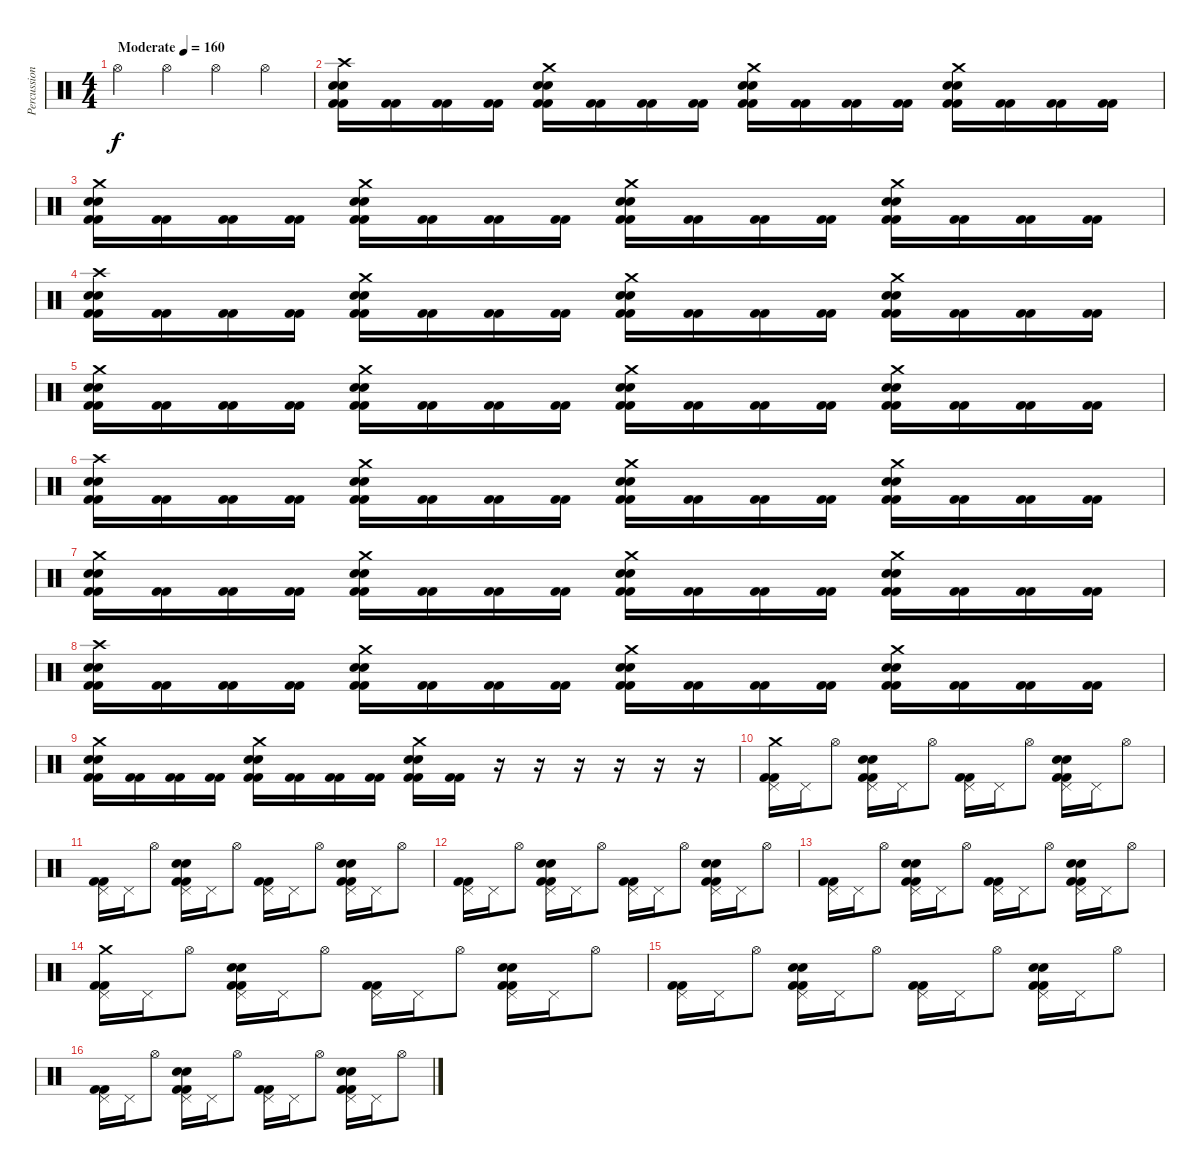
\track ("Percussion" "Percussion") {instrument percussion}
\staff {score}
\articulation defaults
\ts (4 4)
\tempo (160 "Moderate")
\clef neutral
\ks c "Hi-Hat (open)".4{dy f} "Hi-Hat (open)".4 "Hi-Hat (open)".4 "Hi-Hat (open)".4
|
("Crash high (hit)" "Snare (hit) 2" "Snare (hit) 2" "Kick (hit) 2" "Kick (hit) 2").16 ("Kick (hit) 2" "Kick (hit) 2").16 ("Kick (hit) 2" "Kick (hit) 2").16 ("Kick (hit) 2" "Kick (hit) 2").16 ("Crash medium (hit)" "Snare (hit) 2" "Snare (hit) 2" "Kick (hit) 2" "Kick (hit) 2").16 ("Kick (hit) 2" "Kick (hit) 2").16 ("Kick (hit) 2" "Kick (hit) 2").16 ("Kick (hit) 2" "Kick (hit) 2").16 ("Crash medium (hit)" "Snare (hit) 2" "Snare (hit) 2" "Kick (hit) 2" "Kick (hit) 2").16 ("Kick (hit) 2" "Kick (hit) 2").16 ("Kick (hit) 2" "Kick (hit) 2").16 ("Kick (hit) 2" "Kick (hit) 2").16 ("Crash medium (hit)" "Snare (hit) 2" "Snare (hit) 2" "Kick (hit) 2" "Kick (hit) 2").16 ("Kick (hit) 2" "Kick (hit) 2").16 ("Kick (hit) 2" "Kick (hit) 2").16 ("Kick (hit) 2" "Kick (hit) 2").16 |
("Crash medium (hit)" "Snare (hit) 2" "Snare (hit) 2" "Kick (hit) 2" "Kick (hit) 2").16 ("Kick (hit) 2" "Kick (hit) 2").16 ("Kick (hit) 2" "Kick (hit) 2").16 ("Kick (hit) 2" "Kick (hit) 2").16 ("Crash medium (hit)" "Snare (hit) 2" "Snare (hit) 2" "Kick (hit) 2" "Kick (hit) 2").16 ("Kick (hit) 2" "Kick (hit) 2").16 ("Kick (hit) 2" "Kick (hit) 2").16 ("Kick (hit) 2" "Kick (hit) 2").16 ("Crash medium (hit)" "Snare (hit) 2" "Snare (hit) 2" "Kick (hit) 2" "Kick (hit) 2").16 ("Kick (hit) 2" "Kick (hit) 2").16 ("Kick (hit) 2" "Kick (hit) 2").16 ("Kick (hit) 2" "Kick (hit) 2").16 ("Crash medium (hit)" "Snare (hit) 2" "Snare (hit) 2" "Kick (hit) 2" "Kick (hit) 2").16 ("Kick (hit) 2" "Kick (hit) 2").16 ("Kick (hit) 2" "Kick (hit) 2").16 ("Kick (hit) 2" "Kick (hit) 2").16 |
("Crash high (hit)" "Snare (hit) 2" "Snare (hit) 2" "Kick (hit) 2" "Kick (hit) 2").16 ("Kick (hit) 2" "Kick (hit) 2").16 ("Kick (hit) 2" "Kick (hit) 2").16 ("Kick (hit) 2" "Kick (hit) 2").16 ("Crash medium (hit)" "Snare (hit) 2" "Snare (hit) 2" "Kick (hit) 2" "Kick (hit) 2").16 ("Kick (hit) 2" "Kick (hit) 2").16 ("Kick (hit) 2" "Kick (hit) 2").16 ("Kick (hit) 2" "Kick (hit) 2").16 ("Crash medium (hit)" "Snare (hit) 2" "Snare (hit) 2" "Kick (hit) 2" "Kick (hit) 2").16 ("Kick (hit) 2" "Kick (hit) 2").16 ("Kick (hit) 2" "Kick (hit) 2").16 ("Kick (hit) 2" "Kick (hit) 2").16 ("Crash medium (hit)" "Snare (hit) 2" "Snare (hit) 2" "Kick (hit) 2" "Kick (hit) 2").16 ("Kick (hit) 2" "Kick (hit) 2").16 ("Kick (hit) 2" "Kick (hit) 2").16 ("Kick (hit) 2" "Kick (hit) 2").16 |
("Crash medium (hit)" "Snare (hit) 2" "Snare (hit) 2" "Kick (hit) 2" "Kick (hit) 2").16 ("Kick (hit) 2" "Kick (hit) 2").16 ("Kick (hit) 2" "Kick (hit) 2").16 ("Kick (hit) 2" "Kick (hit) 2").16 ("Crash medium (hit)" "Snare (hit) 2" "Snare (hit) 2" "Kick (hit) 2" "Kick (hit) 2").16 ("Kick (hit) 2" "Kick (hit) 2").16 ("Kick (hit) 2" "Kick (hit) 2").16 ("Kick (hit) 2" "Kick (hit) 2").16 ("Crash medium (hit)" "Snare (hit) 2" "Snare (hit) 2" "Kick (hit) 2" "Kick (hit) 2").16 ("Kick (hit) 2" "Kick (hit) 2").16 ("Kick (hit) 2" "Kick (hit) 2").16 ("Kick (hit) 2" "Kick (hit) 2").16 ("Crash medium (hit)" "Snare (hit) 2" "Snare (hit) 2" "Kick (hit) 2" "Kick (hit) 2").16 ("Kick (hit) 2" "Kick (hit) 2").16 ("Kick (hit) 2" "Kick (hit) 2").16 ("Kick (hit) 2" "Kick (hit) 2").16 |
("Crash high (hit)" "Snare (hit) 2" "Snare (hit) 2" "Kick (hit) 2" "Kick (hit) 2").16 ("Kick (hit) 2" "Kick (hit) 2").16 ("Kick (hit) 2" "Kick (hit) 2").16 ("Kick (hit) 2" "Kick (hit) 2").16 ("Crash medium (hit)" "Snare (hit) 2" "Snare (hit) 2" "Kick (hit) 2" "Kick (hit) 2").16 ("Kick (hit) 2" "Kick (hit) 2").16 ("Kick (hit) 2" "Kick (hit) 2").16 ("Kick (hit) 2" "Kick (hit) 2").16 ("Crash medium (hit)" "Snare (hit) 2" "Snare (hit) 2" "Kick (hit) 2" "Kick (hit) 2").16 ("Kick (hit) 2" "Kick (hit) 2").16 ("Kick (hit) 2" "Kick (hit) 2").16 ("Kick (hit) 2" "Kick (hit) 2").16 ("Crash medium (hit)" "Snare (hit) 2" "Snare (hit) 2" "Kick (hit) 2" "Kick (hit) 2").16 ("Kick (hit) 2" "Kick (hit) 2").16 ("Kick (hit) 2" "Kick (hit) 2").16 ("Kick (hit) 2" "Kick (hit) 2").16 |
("Crash medium (hit)" "Snare (hit) 2" "Snare (hit) 2" "Kick (hit) 2" "Kick (hit) 2").16 ("Kick (hit) 2" "Kick (hit) 2").16 ("Kick (hit) 2" "Kick (hit) 2").16 ("Kick (hit) 2" "Kick (hit) 2").16 ("Crash medium (hit)" "Snare (hit) 2" "Snare (hit) 2" "Kick (hit) 2" "Kick (hit) 2").16 ("Kick (hit) 2" "Kick (hit) 2").16 ("Kick (hit) 2" "Kick (hit) 2").16 ("Kick (hit) 2" "Kick (hit) 2").16 ("Crash medium (hit)" "Snare (hit) 2" "Snare (hit) 2" "Kick (hit) 2" "Kick (hit) 2").16 ("Kick (hit) 2" "Kick (hit) 2").16 ("Kick (hit) 2" "Kick (hit) 2").16 ("Kick (hit) 2" "Kick (hit) 2").16 ("Crash medium (hit)" "Snare (hit) 2" "Snare (hit) 2" "Kick (hit) 2" "Kick (hit) 2").16 ("Kick (hit) 2" "Kick (hit) 2").16 ("Kick (hit) 2" "Kick (hit) 2").16 ("Kick (hit) 2" "Kick (hit) 2").16 |
("Crash high (hit)" "Snare (hit) 2" "Snare (hit) 2" "Kick (hit) 2" "Kick (hit) 2").16 ("Kick (hit) 2" "Kick (hit) 2").16 ("Kick (hit) 2" "Kick (hit) 2").16 ("Kick (hit) 2" "Kick (hit) 2").16 ("Crash medium (hit)" "Snare (hit) 2" "Snare (hit) 2" "Kick (hit) 2" "Kick (hit) 2").16 ("Kick (hit) 2" "Kick (hit) 2").16 ("Kick (hit) 2" "Kick (hit) 2").16 ("Kick (hit) 2" "Kick (hit) 2").16 ("Crash medium (hit)" "Snare (hit) 2" "Snare (hit) 2" "Kick (hit) 2" "Kick (hit) 2").16 ("Kick (hit) 2" "Kick (hit) 2").16 ("Kick (hit) 2" "Kick (hit) 2").16 ("Kick (hit) 2" "Kick (hit) 2").16 ("Crash medium (hit)" "Snare (hit) 2" "Snare (hit) 2" "Kick (hit) 2" "Kick (hit) 2").16 ("Kick (hit) 2" "Kick (hit) 2").16 ("Kick (hit) 2" "Kick (hit) 2").16 ("Kick (hit) 2" "Kick (hit) 2").16 |
("Crash medium (hit)" "Snare (hit) 2" "Snare (hit) 2" "Kick (hit) 2" "Kick (hit) 2").16 ("Kick (hit) 2" "Kick (hit) 2").16 ("Kick (hit) 2" "Kick (hit) 2").16 ("Kick (hit) 2" "Kick (hit) 2").16 ("Crash medium (hit)" "Snare (hit) 2" "Snare (hit) 2" "Kick (hit) 2" "Kick (hit) 2").16 ("Kick (hit) 2" "Kick (hit) 2").16 ("Kick (hit) 2" "Kick (hit) 2").16 ("Kick (hit) 2" "Kick (hit) 2").16 ("Crash medium (hit)" "Snare (hit) 2" "Snare (hit) 2" "Kick (hit) 2" "Kick (hit) 2").16 ("Kick (hit) 2" "Kick (hit) 2").16 r.16 r.16 r.16 r.16 r.16 r.16 |
("Crash medium (hit)" "Pedal Hi-Hat (hit)" "Kick (hit) 2" "Kick (hit) 2").16 "Pedal Hi-Hat (hit)".16 "Hi-Hat (open)".8 ("Snare (hit) 2" "Snare (hit) 2" "Pedal Hi-Hat (hit)" "Kick (hit) 2" "Kick (hit) 2").16 "Pedal Hi-Hat (hit)".16 "Hi-Hat (open)".8 ("Pedal Hi-Hat (hit)" "Kick (hit) 2" "Kick (hit) 2").16 "Pedal Hi-Hat (hit)".16 "Hi-Hat (open)".8 ("Snare (hit) 2" "Snare (hit) 2" "Pedal Hi-Hat (hit)" "Kick (hit) 2" "Kick (hit) 2").16 "Pedal Hi-Hat (hit)".16 "Hi-Hat (open)".8 |
("Pedal Hi-Hat (hit)" "Kick (hit) 2" "Kick (hit) 2").16 "Pedal Hi-Hat (hit)".16 "Hi-Hat (open)".8 ("Snare (hit) 2" "Snare (hit) 2" "Pedal Hi-Hat (hit)" "Kick (hit) 2" "Kick (hit) 2").16 "Pedal Hi-Hat (hit)".16 "Hi-Hat (open)".8 ("Pedal Hi-Hat (hit)" "Kick (hit) 2" "Kick (hit) 2").16 "Pedal Hi-Hat (hit)".16 "Hi-Hat (open)".8 ("Snare (hit) 2" "Snare (hit) 2" "Pedal Hi-Hat (hit)" "Kick (hit) 2" "Kick (hit) 2").16 "Pedal Hi-Hat (hit)".16 "Hi-Hat (open)".8 |
("Pedal Hi-Hat (hit)" "Kick (hit) 2" "Kick (hit) 2").16 "Pedal Hi-Hat (hit)".16 "Hi-Hat (open)".8 ("Snare (hit) 2" "Snare (hit) 2" "Pedal Hi-Hat (hit)" "Kick (hit) 2" "Kick (hit) 2").16 "Pedal Hi-Hat (hit)".16 "Hi-Hat (open)".8 ("Pedal Hi-Hat (hit)" "Kick (hit) 2" "Kick (hit) 2").16 "Pedal Hi-Hat (hit)".16 "Hi-Hat (open)".8 ("Snare (hit) 2" "Snare (hit) 2" "Pedal Hi-Hat (hit)" "Kick (hit) 2" "Kick (hit) 2").16 "Pedal Hi-Hat (hit)".16 "Hi-Hat (open)".8 |
("Pedal Hi-Hat (hit)" "Kick (hit) 2" "Kick (hit) 2").16 "Pedal Hi-Hat (hit)".16 "Hi-Hat (open)".8 ("Snare (hit) 2" "Snare (hit) 2" "Pedal Hi-Hat (hit)" "Kick (hit) 2" "Kick (hit) 2").16 "Pedal Hi-Hat (hit)".16 "Hi-Hat (open)".8 ("Pedal Hi-Hat (hit)" "Kick (hit) 2" "Kick (hit) 2").16 "Pedal Hi-Hat (hit)".16 "Hi-Hat (open)".8 ("Snare (hit) 2" "Snare (hit) 2" "Pedal Hi-Hat (hit)" "Kick (hit) 2" "Kick (hit) 2").16 "Pedal Hi-Hat (hit)".16 "Hi-Hat (open)".8 |
("Crash medium (hit)" "Pedal Hi-Hat (hit)" "Kick (hit) 2" "Kick (hit) 2").16 "Pedal Hi-Hat (hit)".16 "Hi-Hat (open)".8 ("Snare (hit) 2" "Snare (hit) 2" "Pedal Hi-Hat (hit)" "Kick (hit) 2" "Kick (hit) 2").16 "Pedal Hi-Hat (hit)".16 "Hi-Hat (open)".8 ("Pedal Hi-Hat (hit)" "Kick (hit) 2" "Kick (hit) 2").16 "Pedal Hi-Hat (hit)".16 "Hi-Hat (open)".8 ("Snare (hit) 2" "Snare (hit) 2" "Pedal Hi-Hat (hit)" "Kick (hit) 2" "Kick (hit) 2").16 "Pedal Hi-Hat (hit)".16 "Hi-Hat (open)".8 |
("Pedal Hi-Hat (hit)" "Kick (hit) 2" "Kick (hit) 2").16 "Pedal Hi-Hat (hit)".16 "Hi-Hat (open)".8 ("Snare (hit) 2" "Snare (hit) 2" "Pedal Hi-Hat (hit)" "Kick (hit) 2" "Kick (hit) 2").16 "Pedal Hi-Hat (hit)".16 "Hi-Hat (open)".8 ("Pedal Hi-Hat (hit)" "Kick (hit) 2" "Kick (hit) 2").16 "Pedal Hi-Hat (hit)".16 "Hi-Hat (open)".8 ("Snare (hit) 2" "Snare (hit) 2" "Pedal Hi-Hat (hit)" "Kick (hit) 2" "Kick (hit) 2").16 "Pedal Hi-Hat (hit)".16 "Hi-Hat (open)".8 |
("Pedal Hi-Hat (hit)" "Kick (hit) 2" "Kick (hit) 2").16 "Pedal Hi-Hat (hit)".16 "Hi-Hat (open)".8 ("Snare (hit) 2" "Snare (hit) 2" "Pedal Hi-Hat (hit)" "Kick (hit) 2" "Kick (hit) 2").16 "Pedal Hi-Hat (hit)".16 "Hi-Hat (open)".8 ("Pedal Hi-Hat (hit)" "Kick (hit) 2" "Kick (hit) 2").16 "Pedal Hi-Hat (hit)".16 "Hi-Hat (open)".8 ("Snare (hit) 2" "Snare (hit) 2" "Pedal Hi-Hat (hit)" "Kick (hit) 2" "Kick (hit) 2").16 "Pedal Hi-Hat (hit)".16 "Hi-Hat (open)".8
